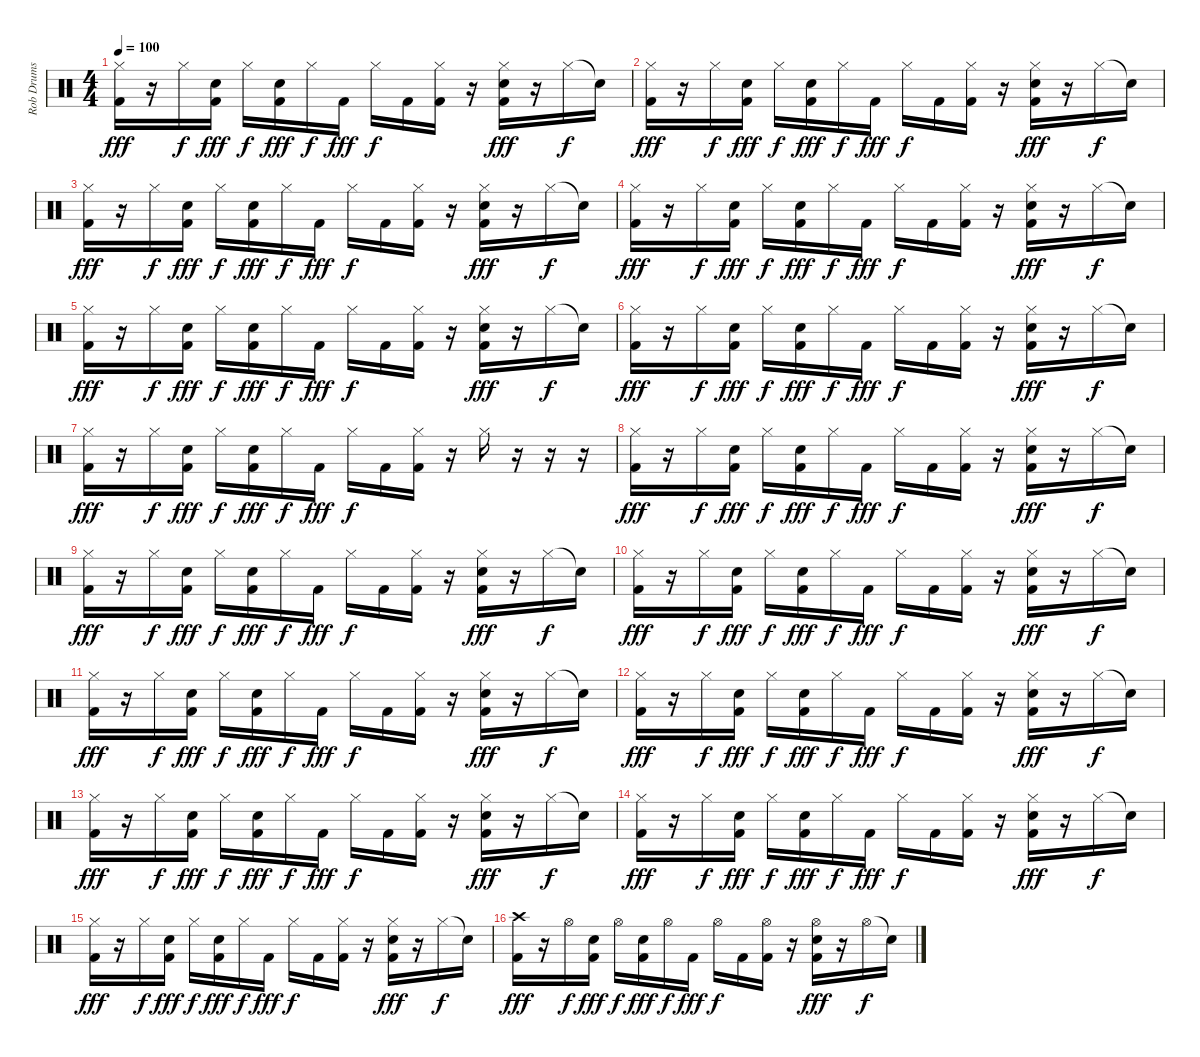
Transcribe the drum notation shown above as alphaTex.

\track ("Rob Drums" "Rob Drums") {instrument percussion}
\staff {score}
\articulation defaults
\ts (4 4)
\tempo 100
\clef neutral
\ks c
("Hi-Hat (closed)" "Kick (hit) 2").16{dy fff volume 16} r.16 "Hi-Hat (closed)".16{dy f} ("Snare (hit) 2" "Kick (hit) 2").16{dy fff} "Hi-Hat (closed)".16{dy f} ("Snare (hit) 2" "Kick (hit) 2").16{dy fff} "Hi-Hat (closed)".16{dy f} "Kick (hit) 2".16{dy fff} "Hi-Hat (closed)".16{dy f} "Kick (hit) 2".16 ("Hi-Hat (closed)" "Kick (hit) 2").16 r.16 ("Hi-Hat (closed)" "Snare (hit) 2" "Kick (hit) 2").16{dy fff} r.16 "Hi-Hat (closed)".16{dy f} "Snare (hit)"{t}.16 |
("Hi-Hat (closed)" "Kick (hit) 2").16{dy fff volume 16} r.16 "Hi-Hat (closed)".16{dy f} ("Snare (hit) 2" "Kick (hit) 2").16{dy fff} "Hi-Hat (closed)".16{dy f} ("Snare (hit) 2" "Kick (hit) 2").16{dy fff} "Hi-Hat (closed)".16{dy f} "Kick (hit) 2".16{dy fff} "Hi-Hat (closed)".16{dy f} "Kick (hit) 2".16 ("Hi-Hat (closed)" "Kick (hit) 2").16 r.16 ("Hi-Hat (closed)" "Snare (hit) 2" "Kick (hit) 2").16{dy fff} r.16 "Hi-Hat (closed)".16{dy f} "Snare (hit)"{t}.16 |
("Hi-Hat (closed)" "Kick (hit) 2").16{dy fff} r.16 "Hi-Hat (closed)".16{dy f} ("Snare (hit) 2" "Kick (hit) 2").16{dy fff} "Hi-Hat (closed)".16{dy f} ("Snare (hit) 2" "Kick (hit) 2").16{dy fff} "Hi-Hat (closed)".16{dy f} "Kick (hit) 2".16{dy fff} "Hi-Hat (closed)".16{dy f} "Kick (hit) 2".16 ("Hi-Hat (closed)" "Kick (hit) 2").16 r.16 ("Hi-Hat (closed)" "Snare (hit) 2" "Kick (hit) 2").16{dy fff} r.16 "Hi-Hat (closed)".16{dy f} "Snare (hit)"{t}.16 |
("Hi-Hat (closed)" "Kick (hit) 2").16{dy fff} r.16 "Hi-Hat (closed)".16{dy f} ("Snare (hit) 2" "Kick (hit) 2").16{dy fff} "Hi-Hat (closed)".16{dy f} ("Snare (hit) 2" "Kick (hit) 2").16{dy fff} "Hi-Hat (closed)".16{dy f} "Kick (hit) 2".16{dy fff} "Hi-Hat (closed)".16{dy f} "Kick (hit) 2".16 ("Hi-Hat (closed)" "Kick (hit) 2").16 r.16 ("Hi-Hat (closed)" "Snare (hit) 2" "Kick (hit) 2").16{dy fff} r.16 "Hi-Hat (closed)".16{dy f} "Snare (hit)"{t}.16 |
("Hi-Hat (closed)" "Kick (hit) 2").16{dy fff} r.16 "Hi-Hat (closed)".16{dy f} ("Snare (hit) 2" "Kick (hit) 2").16{dy fff} "Hi-Hat (closed)".16{dy f} ("Snare (hit) 2" "Kick (hit) 2").16{dy fff} "Hi-Hat (closed)".16{dy f} "Kick (hit) 2".16{dy fff} "Hi-Hat (closed)".16{dy f} "Kick (hit) 2".16 ("Hi-Hat (closed)" "Kick (hit) 2").16 r.16 ("Hi-Hat (closed)" "Snare (hit) 2" "Kick (hit) 2").16{dy fff} r.16 "Hi-Hat (closed)".16{dy f} "Snare (hit)"{t}.16 |
("Hi-Hat (closed)" "Kick (hit) 2").16{dy fff} r.16 "Hi-Hat (closed)".16{dy f} ("Snare (hit) 2" "Kick (hit) 2").16{dy fff} "Hi-Hat (closed)".16{dy f} ("Snare (hit) 2" "Kick (hit) 2").16{dy fff} "Hi-Hat (closed)".16{dy f} "Kick (hit) 2".16{dy fff} "Hi-Hat (closed)".16{dy f} "Kick (hit) 2".16 ("Hi-Hat (closed)" "Kick (hit) 2").16 r.16 ("Hi-Hat (closed)" "Snare (hit) 2" "Kick (hit) 2").16{dy fff} r.16 "Hi-Hat (closed)".16{dy f} "Snare (hit)"{t}.16 |
("Hi-Hat (closed)" "Kick (hit) 2").16{dy fff} r.16 "Hi-Hat (closed)".16{dy f} ("Snare (hit) 2" "Kick (hit) 2").16{dy fff} "Hi-Hat (closed)".16{dy f} ("Snare (hit) 2" "Kick (hit) 2").16{dy fff} "Hi-Hat (closed)".16{dy f} "Kick (hit) 2".16{dy fff} "Hi-Hat (closed)".16{dy f} "Kick (hit) 2".16 ("Hi-Hat (closed)" "Kick (hit) 2").16 r.16 "Hi-Hat (closed)".16 r.16 r.16 r.16 |
("Hi-Hat (closed)" "Kick (hit) 2").16{dy fff} r.16 "Hi-Hat (closed)".16{dy f} ("Snare (hit) 2" "Kick (hit) 2").16{dy fff} "Hi-Hat (closed)".16{dy f} ("Snare (hit) 2" "Kick (hit) 2").16{dy fff} "Hi-Hat (closed)".16{dy f} "Kick (hit) 2".16{dy fff} "Hi-Hat (closed)".16{dy f} "Kick (hit) 2".16 ("Hi-Hat (closed)" "Kick (hit) 2").16 r.16 ("Hi-Hat (closed)" "Snare (hit) 2" "Kick (hit) 2").16{dy fff} r.16 "Hi-Hat (closed)".16{dy f} "Snare (hit)"{t}.16 |
("Hi-Hat (closed)" "Kick (hit) 2").16{dy fff} r.16 "Hi-Hat (closed)".16{dy f} ("Snare (hit) 2" "Kick (hit) 2").16{dy fff} "Hi-Hat (closed)".16{dy f} ("Snare (hit) 2" "Kick (hit) 2").16{dy fff} "Hi-Hat (closed)".16{dy f} "Kick (hit) 2".16{dy fff} "Hi-Hat (closed)".16{dy f} "Kick (hit) 2".16 ("Hi-Hat (closed)" "Kick (hit) 2").16 r.16 ("Hi-Hat (closed)" "Snare (hit) 2" "Kick (hit) 2").16{dy fff} r.16 "Hi-Hat (closed)".16{dy f} "Snare (hit)"{t}.16 |
("Hi-Hat (closed)" "Kick (hit) 2").16{dy fff} r.16 "Hi-Hat (closed)".16{dy f} ("Snare (hit) 2" "Kick (hit) 2").16{dy fff} "Hi-Hat (closed)".16{dy f} ("Snare (hit) 2" "Kick (hit) 2").16{dy fff} "Hi-Hat (closed)".16{dy f} "Kick (hit) 2".16{dy fff} "Hi-Hat (closed)".16{dy f} "Kick (hit) 2".16 ("Hi-Hat (closed)" "Kick (hit) 2").16 r.16 ("Hi-Hat (closed)" "Snare (hit) 2" "Kick (hit) 2").16{dy fff} r.16 "Hi-Hat (closed)".16{dy f} "Snare (hit)"{t}.16 |
("Hi-Hat (closed)" "Kick (hit) 2").16{dy fff} r.16 "Hi-Hat (closed)".16{dy f} ("Snare (hit) 2" "Kick (hit) 2").16{dy fff} "Hi-Hat (closed)".16{dy f} ("Snare (hit) 2" "Kick (hit) 2").16{dy fff} "Hi-Hat (closed)".16{dy f} "Kick (hit) 2".16{dy fff} "Hi-Hat (closed)".16{dy f} "Kick (hit) 2".16 ("Hi-Hat (closed)" "Kick (hit) 2").16 r.16 ("Hi-Hat (closed)" "Snare (hit) 2" "Kick (hit) 2").16{dy fff} r.16 "Hi-Hat (closed)".16{dy f} "Snare (hit)"{t}.16 |
("Hi-Hat (closed)" "Kick (hit) 2").16{dy fff} r.16 "Hi-Hat (closed)".16{dy f} ("Snare (hit) 2" "Kick (hit) 2").16{dy fff} "Hi-Hat (closed)".16{dy f} ("Snare (hit) 2" "Kick (hit) 2").16{dy fff} "Hi-Hat (closed)".16{dy f} "Kick (hit) 2".16{dy fff} "Hi-Hat (closed)".16{dy f} "Kick (hit) 2".16 ("Hi-Hat (closed)" "Kick (hit) 2").16 r.16 ("Hi-Hat (closed)" "Snare (hit) 2" "Kick (hit) 2").16{dy fff} r.16 "Hi-Hat (closed)".16{dy f} "Snare (hit)"{t}.16 |
("Hi-Hat (closed)" "Kick (hit) 2").16{dy fff} r.16 "Hi-Hat (closed)".16{dy f} ("Snare (hit) 2" "Kick (hit) 2").16{dy fff} "Hi-Hat (closed)".16{dy f} ("Snare (hit) 2" "Kick (hit) 2").16{dy fff} "Hi-Hat (closed)".16{dy f} "Kick (hit) 2".16{dy fff} "Hi-Hat (closed)".16{dy f} "Kick (hit) 2".16 ("Hi-Hat (closed)" "Kick (hit) 2").16 r.16 ("Hi-Hat (closed)" "Snare (hit) 2" "Kick (hit) 2").16{dy fff} r.16 "Hi-Hat (closed)".16{dy f} "Snare (hit)"{t}.16 |
("Hi-Hat (closed)" "Kick (hit) 2").16{dy fff} r.16 "Hi-Hat (closed)".16{dy f} ("Snare (hit) 2" "Kick (hit) 2").16{dy fff} "Hi-Hat (closed)".16{dy f} ("Snare (hit) 2" "Kick (hit) 2").16{dy fff} "Hi-Hat (closed)".16{dy f} "Kick (hit) 2".16{dy fff} "Hi-Hat (closed)".16{dy f} "Kick (hit) 2".16 ("Hi-Hat (closed)" "Kick (hit) 2").16 r.16 ("Hi-Hat (closed)" "Snare (hit) 2" "Kick (hit) 2").16{dy fff} r.16 "Hi-Hat (closed)".16{dy f} "Snare (hit)"{t}.16 |
("Hi-Hat (closed)" "Kick (hit) 2").16{dy fff} r.16 "Hi-Hat (closed)".16{dy f} ("Snare (hit) 2" "Kick (hit) 2").16{dy fff} "Hi-Hat (closed)".16{dy f} ("Snare (hit) 2" "Kick (hit) 2").16{dy fff} "Hi-Hat (closed)".16{dy f} "Kick (hit) 2".16{dy fff} "Hi-Hat (closed)".16{dy f} "Kick (hit) 2".16 ("Hi-Hat (closed)" "Kick (hit) 2").16 r.16 ("Hi-Hat (closed)" "Snare (hit) 2" "Kick (hit) 2").16{dy fff} r.16 "Hi-Hat (closed)".16{dy f} "Snare (hit)"{t}.16 |
("Crash high (hit)" "Kick (hit) 2").16{dy fff volume 16} r.16 "Hi-Hat (open)".16{dy f} ("Snare (hit) 2" "Kick (hit) 2").16{dy fff} "Hi-Hat (open)".16{dy f} ("Snare (hit) 2" "Kick (hit) 2").16{dy fff} "Hi-Hat (open)".16{dy f} "Kick (hit) 2".16{dy fff} "Hi-Hat (open)".16{dy f} "Kick (hit) 2".16 ("Hi-Hat (open)" "Kick (hit) 2").16 r.16 ("Hi-Hat (open)" "Snare (hit) 2" "Kick (hit) 2").16{dy fff} r.16 "Hi-Hat (open)".16{dy f} "Snare (hit)"{t}.16
